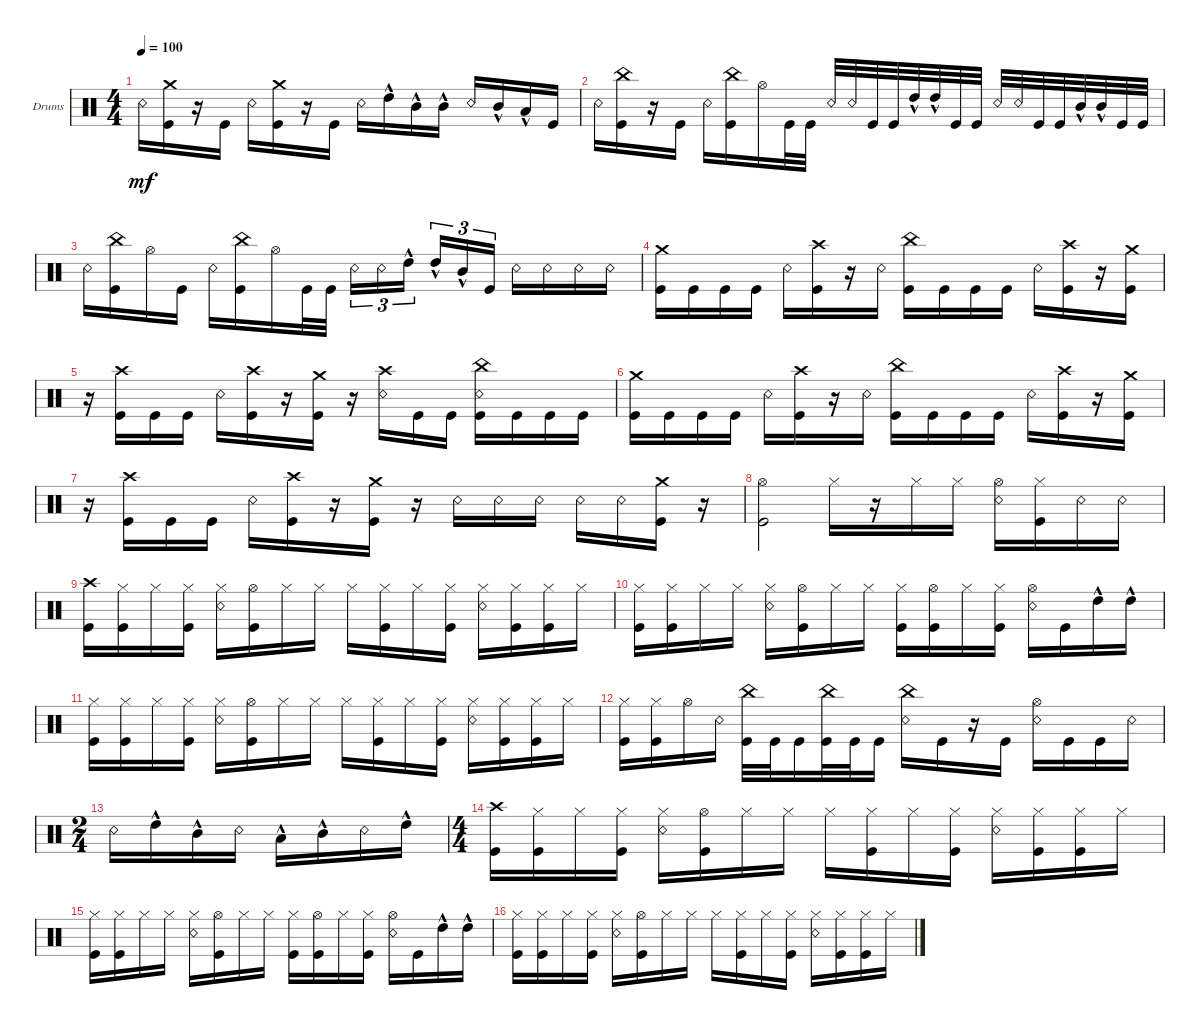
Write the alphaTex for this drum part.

\defaultSystemsLayout 4
\bracketExtendMode groupsimilarinstruments
\firstSystemTrackNameOrientation horizontal
\otherSystemsTrackNameOrientation horizontal
\track ("Drumkit" "Drums") {instrument percussion}
\staff {score}
\articulation defaults
\ts (4 4)
\tempo 100
\clef neutral
\ks c "Snare (rim shot)".16{dy mf}
("Kick (hit)" "Crash medium (hit)").16 r.16 "Kick (hit)".16 "Snare (rim shot)".16 ("Kick (hit)" "Crash medium (hit)").16 r.16 "Kick (hit)".16 "Snare (rim shot)".16 "High Tom (hit)"{hac}.16 "Mid Tom (hit)"{hac}.16 "Mid Tom (hit)"{hac}.16 "Snare (rim shot)".16 "Mid Tom (hit)"{hac}.16 "Low Tom (hit)"{hac}.16 "Kick (hit)".16 |
"Snare (rim shot)".16 ("China (hit)" "Kick (hit)").16 r.16 "Kick (hit)".16 "Snare (rim shot)".16 ("China (hit)" "Kick (hit)").16 "Hi-Hat (open)".16 "Kick (hit)".32 "Kick (hit)".32 "Snare (rim shot)".32 "Snare (rim shot)".32 "Kick (hit)".32 "Kick (hit)".32 "High Tom (hit)"{hac}.32 "High Tom (hit)"{hac}.32 "Kick (hit)".32 "Kick (hit)".32 "Snare (rim shot)".32 "Snare (rim shot)".32 "Kick (hit)".32 "Kick (hit)".32 "Mid Tom (hit)"{hac}.32 "Mid Tom (hit)"{hac}.32 "Kick (hit)".32 "Kick (hit)".32 |
"Snare (rim shot)".16 ("China (hit)" "Kick (hit)").16 "Hi-Hat (open)".16 "Kick (hit)".16 "Snare (rim shot)".16 ("China (hit)" "Kick (hit)").16 "Hi-Hat (open)".16 "Kick (hit)".32 "Kick (hit)".32 "Snare (rim shot)".16{tu (3 2)} "Snare (rim shot)".16{tu (3 2)} "High Tom (hit)"{hac}.16{tu (3 2)} "High Tom (hit)"{hac}.16{tu (3 2)} "Mid Tom (hit)"{hac}.16{tu (3 2)} "Kick (hit)".16{tu (3 2)} "Snare (rim shot)".16 "Snare (rim shot)".16 "Snare (rim shot)".16 "Snare (rim shot)".16 |
("Kick (hit)" "Crash medium (hit)").16 "Kick (hit)".16 "Kick (hit)".16 "Kick (hit)".16 "Snare (rim shot)".16 ("Kick (hit)" "Crash high (hit)").16 r.16 "Snare (rim shot)".16 ("Kick (hit)" "China (hit)").16 "Kick (hit)".16 "Kick (hit)".16 "Kick (hit)".16 "Snare (rim shot)".16 ("Kick (hit)" "Crash high (hit)").16 r.16 ("Kick (hit)" "Crash medium (hit)").16 |
r.16 ("Kick (hit)" "Crash high (hit)").16 "Kick (hit)".16 "Kick (hit)".16 "Snare (rim shot)".16 ("Kick (hit)" "Crash high (hit)").16 r.16 ("Kick (hit)" "Crash medium (hit)").16 r.16 ("Snare (rim shot)" "Crash high (hit)").16 "Kick (hit)".16 "Kick (hit)".16 ("Snare (rim shot)" "China (hit)" "Kick (hit)").16 "Kick (hit)".16 "Kick (hit)".16 "Kick (hit)".16 |
("Kick (hit)" "Crash medium (hit)").16 "Kick (hit)".16 "Kick (hit)".16 "Kick (hit)".16 "Snare (rim shot)".16 ("Kick (hit)" "Crash high (hit)").16 r.16 "Snare (rim shot)".16 ("Kick (hit)" "China (hit)").16 "Kick (hit)".16 "Kick (hit)".16 "Kick (hit)".16 "Snare (rim shot)".16 ("Kick (hit)" "Crash high (hit)").16 r.16 ("Kick (hit)" "Crash medium (hit)").16 |
r.16 ("Kick (hit)" "Crash high (hit)").16 "Kick (hit)".16 "Kick (hit)".16 "Snare (rim shot)".16 ("Kick (hit)" "Crash high (hit)").16 r.16 ("Kick (hit)" "Crash medium (hit)").16 r.16 "Snare (rim shot)".16 "Snare (rim shot)".16 "Snare (rim shot)".16 "Snare (rim shot)".16 "Snare (rim shot)".16 ("Kick (hit)" "Crash medium (hit)").16 r.16 |
("Kick (hit)" "Hi-Hat (open)").2 "Hi-Hat (closed)".16 r.16 "Hi-Hat (closed)".16 "Hi-Hat (closed)".16 ("Snare (rim shot)" "Hi-Hat (open)").16 ("Kick (hit)" "Hi-Hat (closed)").16 "Snare (rim shot)".16 "Snare (rim shot)".16 |
("Kick (hit)" "Crash high (hit)").16 ("Kick (hit)" "Hi-Hat (closed)").16 "Hi-Hat (closed)".16 ("Hi-Hat (closed)" "Kick (hit)").16 ("Hi-Hat (closed)" "Snare (rim shot)").16 ("Kick (hit)" "Hi-Hat (open)").16 "Hi-Hat (closed)".16 "Hi-Hat (closed)".16 "Hi-Hat (closed)".16 ("Hi-Hat (closed)" "Kick (hit)").16 "Hi-Hat (closed)".16 ("Hi-Hat (closed)" "Kick (hit)").16 ("Hi-Hat (closed)" "Snare (rim shot)").16 ("Hi-Hat (closed)" "Kick (hit)").16 ("Hi-Hat (closed)" "Kick (hit)").16 "Hi-Hat (closed)".16 |
("Kick (hit)" "Hi-Hat (closed)").16 ("Kick (hit)" "Hi-Hat (closed)").16 "Hi-Hat (closed)".16 "Hi-Hat (closed)".16 ("Hi-Hat (closed)" "Snare (rim shot)").16 ("Kick (hit)" "Hi-Hat (open)").16 "Hi-Hat (closed)".16 "Hi-Hat (closed)".16 ("Hi-Hat (closed)" "Kick (hit)").16 ("Hi-Hat (open)" "Kick (hit)").16 "Hi-Hat (closed)".16 ("Hi-Hat (closed)" "Kick (hit)").16 ("Hi-Hat (open)" "Snare (rim shot)").16 "Kick (hit)".16 "High Tom (hit)"{hac}.16 "High Tom (hit)"{hac}.16 |
("Kick (hit)" "Hi-Hat (closed)").16 ("Kick (hit)" "Hi-Hat (closed)").16 "Hi-Hat (closed)".16 ("Hi-Hat (closed)" "Kick (hit)").16 ("Hi-Hat (closed)" "Snare (rim shot)").16 ("Kick (hit)" "Hi-Hat (open)").16 "Hi-Hat (closed)".16 "Hi-Hat (closed)".16 "Hi-Hat (closed)".16 ("Hi-Hat (closed)" "Kick (hit)").16 "Hi-Hat (closed)".16 ("Hi-Hat (closed)" "Kick (hit)").16 ("Hi-Hat (closed)" "Snare (rim shot)").16 ("Hi-Hat (closed)" "Kick (hit)").16 ("Hi-Hat (closed)" "Kick (hit)").16 "Hi-Hat (closed)".16 |
("Kick (hit)" "Hi-Hat (closed)").16 ("Kick (hit)" "Hi-Hat (closed)").16 "Hi-Hat (open)".16 "Snare (rim shot)".16 ("Kick (hit)" "China (hit)").32 "Kick (hit)".32 "Kick (hit)".16 ("Kick (hit)" "China (hit)").32 "Kick (hit)".32 "Kick (hit)".16 ("China (hit)" "Snare (rim shot)").16 "Kick (hit)".16 r.16 "Kick (hit)".16 ("Hi-Hat (open)" "Snare (rim shot)").16 "Kick (hit)".16 "Kick (hit)".16 "Snare (rim shot)".16 |
\ts (2 4)
"Snare (rim shot)".16 "High Tom (hit)"{hac}.16 "Mid Tom (hit)"{hac}.16 "Snare (rim shot)".16 "Low Tom (hit)"{hac}.16 "Mid Tom (hit)"{hac}.16 "Snare (rim shot)".16 "High Tom (hit)"{hac}.16 |
\ts (4 4)
("Kick (hit)" "Crash high (hit)").16 ("Kick (hit)" "Hi-Hat (closed)").16 "Hi-Hat (closed)".16 ("Hi-Hat (closed)" "Kick (hit)").16 ("Hi-Hat (closed)" "Snare (rim shot)").16 ("Kick (hit)" "Hi-Hat (open)").16 "Hi-Hat (closed)".16 "Hi-Hat (closed)".16 "Hi-Hat (closed)".16 ("Hi-Hat (closed)" "Kick (hit)").16 "Hi-Hat (closed)".16 ("Hi-Hat (closed)" "Kick (hit)").16 ("Hi-Hat (closed)" "Snare (rim shot)").16 ("Hi-Hat (closed)" "Kick (hit)").16 ("Hi-Hat (closed)" "Kick (hit)").16 "Hi-Hat (closed)".16 |
("Kick (hit)" "Hi-Hat (closed)").16 ("Kick (hit)" "Hi-Hat (closed)").16 "Hi-Hat (closed)".16 "Hi-Hat (closed)".16 ("Hi-Hat (closed)" "Snare (rim shot)").16 ("Kick (hit)" "Hi-Hat (open)").16 "Hi-Hat (closed)".16 "Hi-Hat (closed)".16 ("Hi-Hat (closed)" "Kick (hit)").16 ("Hi-Hat (open)" "Kick (hit)").16 "Hi-Hat (closed)".16 ("Hi-Hat (closed)" "Kick (hit)").16 ("Hi-Hat (open)" "Snare (rim shot)").16 "Kick (hit)".16 "High Tom (hit)"{hac}.16 "High Tom (hit)"{hac}.16 |
("Kick (hit)" "Hi-Hat (closed)").16 ("Kick (hit)" "Hi-Hat (closed)").16 "Hi-Hat (closed)".16 ("Hi-Hat (closed)" "Kick (hit)").16 ("Hi-Hat (closed)" "Snare (rim shot)").16 ("Kick (hit)" "Hi-Hat (open)").16 "Hi-Hat (closed)".16 "Hi-Hat (closed)".16 "Hi-Hat (closed)".16 ("Hi-Hat (closed)" "Kick (hit)").16 "Hi-Hat (closed)".16 ("Hi-Hat (closed)" "Kick (hit)").16 ("Hi-Hat (closed)" "Snare (rim shot)").16 ("Hi-Hat (closed)" "Kick (hit)").16 ("Hi-Hat (closed)" "Kick (hit)").16 "Hi-Hat (closed)".16
